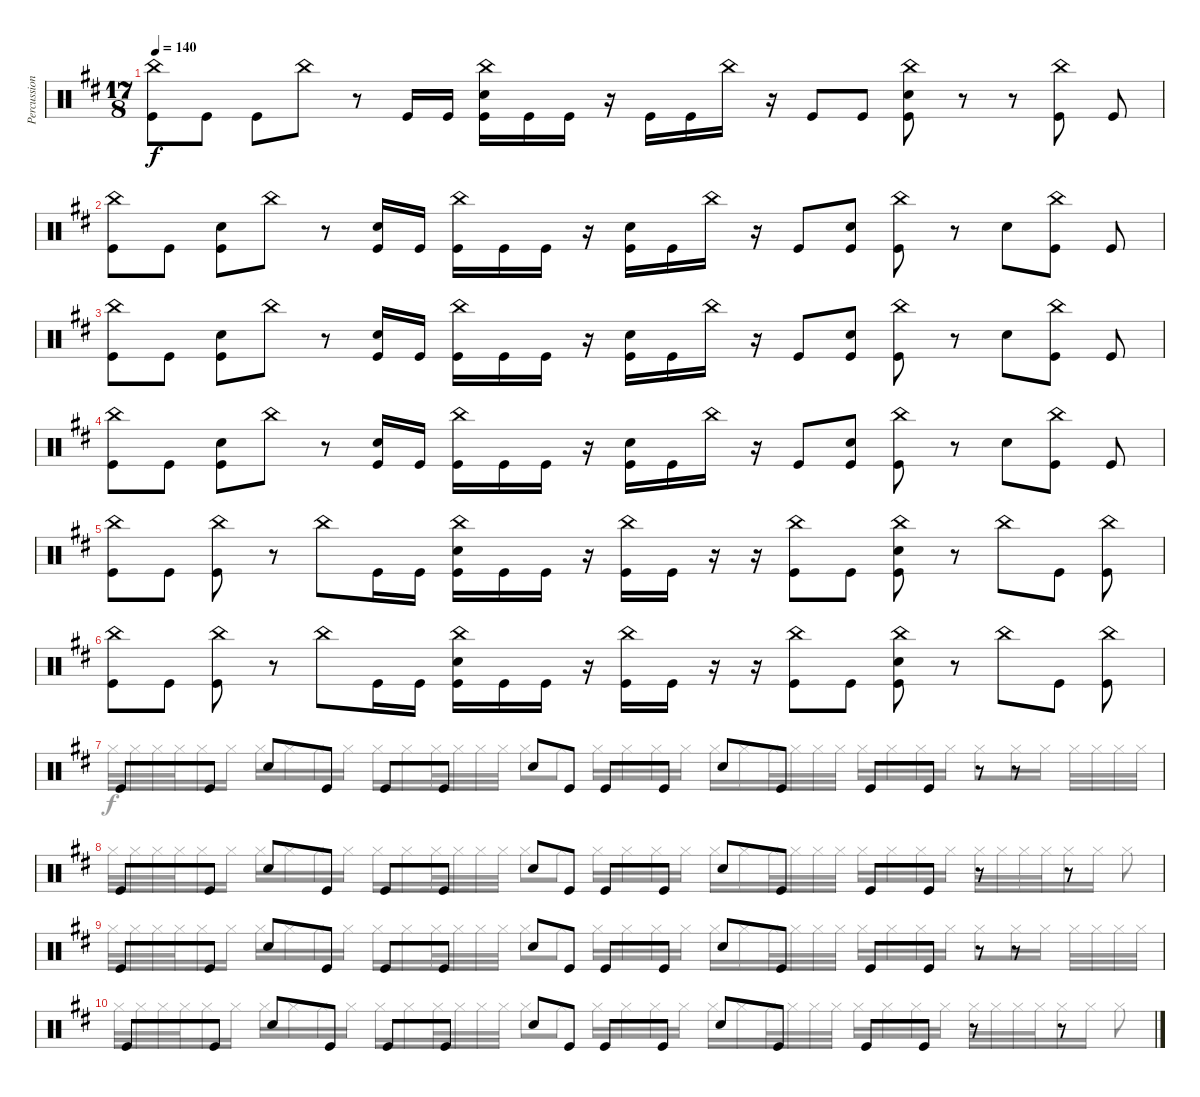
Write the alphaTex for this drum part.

\track ("Percussion" "Percussion") {instrument percussion}
\staff {score}
\articulation defaults
\voice
\ts (17 8)
\tempo 140
\clef neutral
\ks bminor
("China (hit)" "Kick (hit)").8{dy f} "Kick (hit)".8 "Kick (hit)".8 "China (hit)".8 r.8 "Kick (hit)".16 "Kick (hit)".16 ("China (hit)" "Snare (hit) 2" "Kick (hit)").16 "Kick (hit)".16 "Kick (hit)".16 r.16 "Kick (hit)".16 "Kick (hit)".16 "China (hit)".16 r.16 "Kick (hit)".8 "Kick (hit)".8 ("China (hit)" "Snare (hit) 2" "Kick (hit)").8 r.8 r.8 ("China (hit)" "Kick (hit)").8 "Kick (hit)".8 |
("China (hit)" "Kick (hit)").8 "Kick (hit)".8 ("Snare (hit) 2" "Kick (hit)").8 "China (hit)".8 r.8 ("Snare (hit) 2" "Kick (hit)").16 "Kick (hit)".16 ("China (hit)" "Kick (hit)").16 "Kick (hit)".16 "Kick (hit)".16 r.16 ("Snare (hit) 2" "Kick (hit)").16 "Kick (hit)".16 "China (hit)".16 r.16 "Kick (hit)".8 ("Snare (hit) 2" "Kick (hit)").8 ("China (hit)" "Kick (hit)").8 r.8 "Snare (hit) 2".8 ("China (hit)" "Kick (hit)").8 "Kick (hit)".8 |
("China (hit)" "Kick (hit)").8 "Kick (hit)".8 ("Snare (hit) 2" "Kick (hit)").8 "China (hit)".8 r.8 ("Snare (hit) 2" "Kick (hit)").16 "Kick (hit)".16 ("China (hit)" "Kick (hit)").16 "Kick (hit)".16 "Kick (hit)".16 r.16 ("Snare (hit) 2" "Kick (hit)").16 "Kick (hit)".16 "China (hit)".16 r.16 "Kick (hit)".8 ("Snare (hit) 2" "Kick (hit)").8 ("China (hit)" "Kick (hit)").8 r.8 "Snare (hit) 2".8 ("China (hit)" "Kick (hit)").8 "Kick (hit)".8 |
("China (hit)" "Kick (hit)").8 "Kick (hit)".8 ("Snare (hit) 2" "Kick (hit)").8 "China (hit)".8 r.8 ("Snare (hit) 2" "Kick (hit)").16 "Kick (hit)".16 ("China (hit)" "Kick (hit)").16 "Kick (hit)".16 "Kick (hit)".16 r.16 ("Snare (hit) 2" "Kick (hit)").16 "Kick (hit)".16 "China (hit)".16 r.16 "Kick (hit)".8 ("Snare (hit) 2" "Kick (hit)").8 ("China (hit)" "Kick (hit)").8 r.8 "Snare (hit) 2".8 ("China (hit)" "Kick (hit)").8 "Kick (hit)".8 |
("China (hit)" "Kick (hit)").8 "Kick (hit)".8 ("China (hit)" "Kick (hit)").8 r.8 "China (hit)".8 "Kick (hit)".16 "Kick (hit)".16 ("China (hit)" "Snare (hit) 2" "Kick (hit)").16 "Kick (hit)".16 "Kick (hit)".16 r.16 ("China (hit)" "Kick (hit)").16 "Kick (hit)".16 r.16 r.16 ("China (hit)" "Kick (hit)").8 "Kick (hit)".8 ("China (hit)" "Snare (hit) 2" "Kick (hit)").8 r.8 "China (hit)".8 "Kick (hit)".8 ("China (hit)" "Kick (hit)").8 |
("China (hit)" "Kick (hit)").8 "Kick (hit)".8 ("China (hit)" "Kick (hit)").8 r.8 "China (hit)".8 "Kick (hit)".16 "Kick (hit)".16 ("China (hit)" "Snare (hit) 2" "Kick (hit)").16 "Kick (hit)".16 "Kick (hit)".16 r.16 ("China (hit)" "Kick (hit)").16 "Kick (hit)".16 r.16 r.16 ("China (hit)" "Kick (hit)").8 "Kick (hit)".8 ("China (hit)" "Snare (hit) 2" "Kick (hit)").8 r.8 "China (hit)".8 "Kick (hit)".8 ("China (hit)" "Kick (hit)").8 |
"Kick (hit)".8 "Kick (hit)".8 "Snare (hit) 2".8 "Kick (hit)".8 "Kick (hit)".8 "Kick (hit)".8 "Snare (hit) 2".8 "Kick (hit)".8 "Kick (hit)".8 "Kick (hit)".8 "Snare (hit) 2".8 "Kick (hit)".8 "Kick (hit)".8 "Kick (hit)".8 r.8 r.8 |
"Kick (hit)".8 "Kick (hit)".8 "Snare (hit) 2".8 "Kick (hit)".8 "Kick (hit)".8 "Kick (hit)".8 "Snare (hit) 2".8 "Kick (hit)".8 "Kick (hit)".8 "Kick (hit)".8 "Snare (hit) 2".8 "Kick (hit)".8 "Kick (hit)".8 "Kick (hit)".8 r.8 r.8 |
"Kick (hit)".8 "Kick (hit)".8 "Snare (hit) 2".8 "Kick (hit)".8 "Kick (hit)".8 "Kick (hit)".8 "Snare (hit) 2".8 "Kick (hit)".8 "Kick (hit)".8 "Kick (hit)".8 "Snare (hit) 2".8 "Kick (hit)".8 "Kick (hit)".8 "Kick (hit)".8 r.8 r.8 |
"Kick (hit)".8 "Kick (hit)".8 "Snare (hit) 2".8 "Kick (hit)".8 "Kick (hit)".8 "Kick (hit)".8 "Snare (hit) 2".8 "Kick (hit)".8 "Kick (hit)".8 "Kick (hit)".8 "Snare (hit) 2".8 "Kick (hit)".8 "Kick (hit)".8 "Kick (hit)".8 r.8 r.8 |
\voice
\clef neutral
\ottava regular
\simile none
\ks bminor
|
|
|
|
|
|
"Hi-Hat (closed)".32 "Hi-Hat (closed)".32 "Hi-Hat (closed)".32 "Hi-Hat (closed)".32 "Hi-Hat (closed)".16 "Hi-Hat (closed)".16 "Hi-Hat (closed)".16 "Hi-Hat (closed)".16 "Hi-Hat (closed)".16 "Hi-Hat (closed)".16 "Hi-Hat (closed)".16 "Hi-Hat (closed)".16 "Hi-Hat (closed)".32 "Hi-Hat (closed)".32 "Hi-Hat (closed)".32 "Hi-Hat (closed)".32 "Hi-Hat (closed)".8 "Hi-Hat (closed)".8 "Hi-Hat (closed)".16 "Hi-Hat (closed)".16 "Hi-Hat (closed)".16 "Hi-Hat (closed)".16 "Hi-Hat (closed)".16 "Hi-Hat (closed)".16 "Hi-Hat (closed)".32 "Hi-Hat (closed)".32 "Hi-Hat (closed)".32 "Hi-Hat (closed)".32 "Hi-Hat (closed)".16 "Hi-Hat (closed)".16 "Hi-Hat (closed)".16 "Hi-Hat (closed)".16 "Hi-Hat (closed)".8 "Hi-Hat (closed)".16 "Hi-Hat (closed)".16 "Hi-Hat (closed)".32 "Hi-Hat (closed)".32 "Hi-Hat (closed)".32 "Hi-Hat (closed)".32 |
"Hi-Hat (closed)".32 "Hi-Hat (closed)".32 "Hi-Hat (closed)".32 "Hi-Hat (closed)".32 "Hi-Hat (closed)".16 "Hi-Hat (closed)".16 "Hi-Hat (closed)".16 "Hi-Hat (closed)".16 "Hi-Hat (closed)".16 "Hi-Hat (closed)".16 "Hi-Hat (closed)".16 "Hi-Hat (closed)".16 "Hi-Hat (closed)".32 "Hi-Hat (closed)".32 "Hi-Hat (closed)".32 "Hi-Hat (closed)".32 "Hi-Hat (closed)".8 "Hi-Hat (closed)".8 "Hi-Hat (closed)".16 "Hi-Hat (closed)".16 "Hi-Hat (closed)".16 "Hi-Hat (closed)".16 "Hi-Hat (closed)".16 "Hi-Hat (closed)".16 "Hi-Hat (closed)".32 "Hi-Hat (closed)".32 "Hi-Hat (closed)".32 "Hi-Hat (closed)".32 "Hi-Hat (closed)".16 "Hi-Hat (closed)".16 "Hi-Hat (closed)".16 "Hi-Hat (closed)".16 "Hi-Hat (closed)".32 "Hi-Hat (closed)".32 "Hi-Hat (closed)".32 "Hi-Hat (closed)".32 "Hi-Hat (closed)".16 "Hi-Hat (closed)".16 "Hi-Hat (closed)".8 |
"Hi-Hat (closed)".32 "Hi-Hat (closed)".32 "Hi-Hat (closed)".32 "Hi-Hat (closed)".32 "Hi-Hat (closed)".16 "Hi-Hat (closed)".16 "Hi-Hat (closed)".16 "Hi-Hat (closed)".16 "Hi-Hat (closed)".16 "Hi-Hat (closed)".16 "Hi-Hat (closed)".16 "Hi-Hat (closed)".16 "Hi-Hat (closed)".32 "Hi-Hat (closed)".32 "Hi-Hat (closed)".32 "Hi-Hat (closed)".32 "Hi-Hat (closed)".8 "Hi-Hat (closed)".8 "Hi-Hat (closed)".16 "Hi-Hat (closed)".16 "Hi-Hat (closed)".16 "Hi-Hat (closed)".16 "Hi-Hat (closed)".16 "Hi-Hat (closed)".16 "Hi-Hat (closed)".32 "Hi-Hat (closed)".32 "Hi-Hat (closed)".32 "Hi-Hat (closed)".32 "Hi-Hat (closed)".16 "Hi-Hat (closed)".16 "Hi-Hat (closed)".16 "Hi-Hat (closed)".16 "Hi-Hat (closed)".8 "Hi-Hat (closed)".16 "Hi-Hat (closed)".16 "Hi-Hat (closed)".32 "Hi-Hat (closed)".32 "Hi-Hat (closed)".32 "Hi-Hat (closed)".32 |
"Hi-Hat (closed)".32 "Hi-Hat (closed)".32 "Hi-Hat (closed)".32 "Hi-Hat (closed)".32 "Hi-Hat (closed)".16 "Hi-Hat (closed)".16 "Hi-Hat (closed)".16 "Hi-Hat (closed)".16 "Hi-Hat (closed)".16 "Hi-Hat (closed)".16 "Hi-Hat (closed)".16 "Hi-Hat (closed)".16 "Hi-Hat (closed)".32 "Hi-Hat (closed)".32 "Hi-Hat (closed)".32 "Hi-Hat (closed)".32 "Hi-Hat (closed)".8 "Hi-Hat (closed)".8 "Hi-Hat (closed)".16 "Hi-Hat (closed)".16 "Hi-Hat (closed)".16 "Hi-Hat (closed)".16 "Hi-Hat (closed)".16 "Hi-Hat (closed)".16 "Hi-Hat (closed)".32 "Hi-Hat (closed)".32 "Hi-Hat (closed)".32 "Hi-Hat (closed)".32 "Hi-Hat (closed)".16 "Hi-Hat (closed)".16 "Hi-Hat (closed)".16 "Hi-Hat (closed)".16 "Hi-Hat (closed)".32 "Hi-Hat (closed)".32 "Hi-Hat (closed)".32 "Hi-Hat (closed)".32 "Hi-Hat (closed)".16 "Hi-Hat (closed)".16 "Hi-Hat (closed)".8 |
